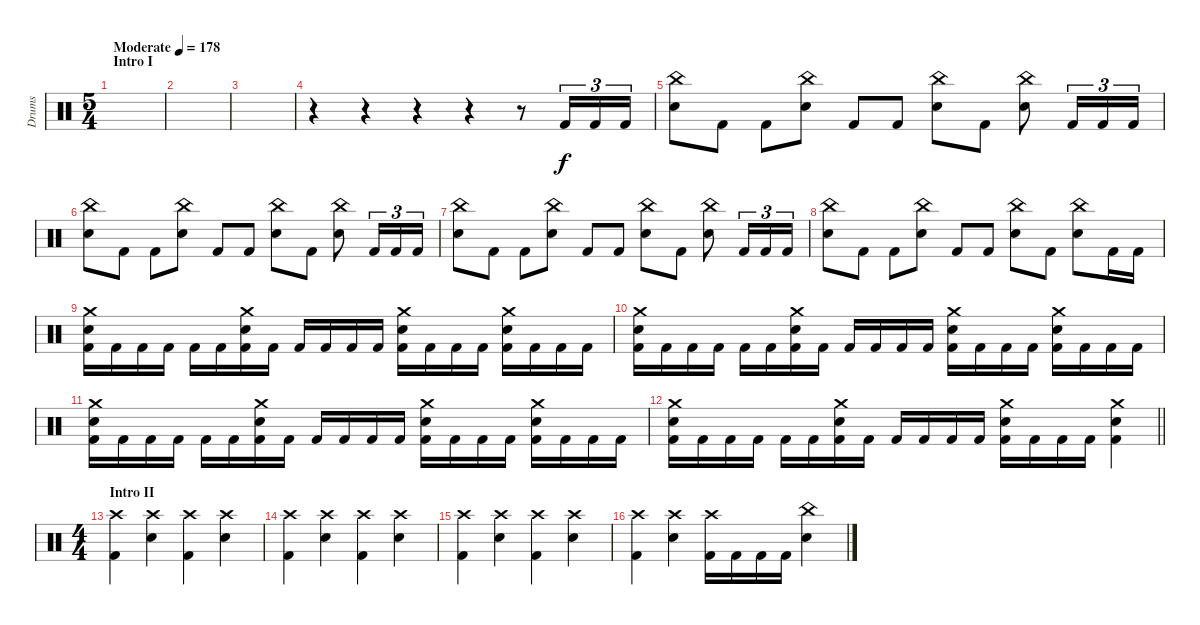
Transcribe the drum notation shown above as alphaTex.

\track ("Drums" "Drums") {instrument percussion}
\staff {score}
\articulation defaults
\ts (5 4)
\section ("" "Intro I")
\tempo (178 "Moderate")
\clef neutral
\ks c
|
|
|
r.4 r.4 r.4 r.4 r.8 "Kick (hit) 2".16{tu (3 2)} "Kick (hit) 2".16{tu (3 2)} "Kick (hit) 2".16{tu (3 2)} |
("China (hit)" "Electric Snare (hit)").8 "Kick (hit) 2".8 "Kick (hit) 2".8 ("China (hit)" "Electric Snare (hit)").8 "Kick (hit) 2".8 "Kick (hit) 2".8 ("China (hit)" "Electric Snare (hit)").8 "Kick (hit) 2".8 ("China (hit)" "Electric Snare (hit)").8 "Kick (hit) 2".16{tu (3 2)} "Kick (hit) 2".16{tu (3 2)} "Kick (hit) 2".16{tu (3 2)} |
("China (hit)" "Electric Snare (hit)").8 "Kick (hit) 2".8 "Kick (hit) 2".8 ("China (hit)" "Electric Snare (hit)").8 "Kick (hit) 2".8 "Kick (hit) 2".8 ("China (hit)" "Electric Snare (hit)").8 "Kick (hit) 2".8 ("China (hit)" "Electric Snare (hit)").8 "Kick (hit) 2".16{tu (3 2)} "Kick (hit) 2".16{tu (3 2)} "Kick (hit) 2".16{tu (3 2)} |
("China (hit)" "Electric Snare (hit)").8 "Kick (hit) 2".8 "Kick (hit) 2".8 ("China (hit)" "Electric Snare (hit)").8 "Kick (hit) 2".8 "Kick (hit) 2".8 ("China (hit)" "Electric Snare (hit)").8 "Kick (hit) 2".8 ("China (hit)" "Electric Snare (hit)").8 "Kick (hit) 2".16{tu (3 2)} "Kick (hit) 2".16{tu (3 2)} "Kick (hit) 2".16{tu (3 2)} |
("China (hit)" "Electric Snare (hit)").8 "Kick (hit) 2".8 "Kick (hit) 2".8 ("China (hit)" "Electric Snare (hit)").8 "Kick (hit) 2".8 "Kick (hit) 2".8 ("China (hit)" "Electric Snare (hit)").8 "Kick (hit) 2".8 ("China (hit)" "Electric Snare (hit)").8 "Kick (hit) 2".16 "Kick (hit) 2".16 |
("Crash medium (hit)" "Electric Snare (hit)" "Kick (hit) 2").16 "Kick (hit) 2".16 "Kick (hit) 2".16 "Kick (hit) 2".16 "Kick (hit) 2".16 "Kick (hit) 2".16 ("Crash medium (hit)" "Electric Snare (hit)" "Kick (hit) 2").16 "Kick (hit) 2".16 "Kick (hit) 2".16 "Kick (hit) 2".16 "Kick (hit) 2".16 "Kick (hit) 2".16 ("Crash medium (hit)" "Electric Snare (hit)" "Kick (hit) 2").16 "Kick (hit) 2".16 "Kick (hit) 2".16 "Kick (hit) 2".16 ("Crash medium (hit)" "Electric Snare (hit)" "Kick (hit) 2").16 "Kick (hit) 2".16 "Kick (hit) 2".16 "Kick (hit) 2".16 |
("Crash medium (hit)" "Electric Snare (hit)" "Kick (hit) 2").16 "Kick (hit) 2".16 "Kick (hit) 2".16 "Kick (hit) 2".16 "Kick (hit) 2".16 "Kick (hit) 2".16 ("Crash medium (hit)" "Electric Snare (hit)" "Kick (hit) 2").16 "Kick (hit) 2".16 "Kick (hit) 2".16 "Kick (hit) 2".16 "Kick (hit) 2".16 "Kick (hit) 2".16 ("Crash medium (hit)" "Electric Snare (hit)" "Kick (hit) 2").16 "Kick (hit) 2".16 "Kick (hit) 2".16 "Kick (hit) 2".16 ("Crash medium (hit)" "Electric Snare (hit)" "Kick (hit) 2").16 "Kick (hit) 2".16 "Kick (hit) 2".16 "Kick (hit) 2".16 |
("Crash medium (hit)" "Electric Snare (hit)" "Kick (hit) 2").16 "Kick (hit) 2".16 "Kick (hit) 2".16 "Kick (hit) 2".16 "Kick (hit) 2".16 "Kick (hit) 2".16 ("Crash medium (hit)" "Electric Snare (hit)" "Kick (hit) 2").16 "Kick (hit) 2".16 "Kick (hit) 2".16 "Kick (hit) 2".16 "Kick (hit) 2".16 "Kick (hit) 2".16 ("Crash medium (hit)" "Electric Snare (hit)" "Kick (hit) 2").16 "Kick (hit) 2".16 "Kick (hit) 2".16 "Kick (hit) 2".16 ("Crash medium (hit)" "Electric Snare (hit)" "Kick (hit) 2").16 "Kick (hit) 2".16 "Kick (hit) 2".16 "Kick (hit) 2".16 |
\barLineRight lightlight
("Crash medium (hit)" "Electric Snare (hit)" "Kick (hit) 2").16 "Kick (hit) 2".16 "Kick (hit) 2".16 "Kick (hit) 2".16 "Kick (hit) 2".16 "Kick (hit) 2".16 ("Crash medium (hit)" "Electric Snare (hit)" "Kick (hit) 2").16 "Kick (hit) 2".16 "Kick (hit) 2".16 "Kick (hit) 2".16 "Kick (hit) 2".16 "Kick (hit) 2".16 ("Crash medium (hit)" "Electric Snare (hit)" "Kick (hit) 2").16 "Kick (hit) 2".16 "Kick (hit) 2".16 "Kick (hit) 2".16 ("Crash medium (hit)" "Electric Snare (hit)" "Kick (hit) 2").4 |
\ts (4 4)
\section ("" "Intro II")
("Crash high (hit)" "Kick (hit) 2").4 ("Crash high (hit)" "Electric Snare (hit)").4 ("Crash high (hit)" "Kick (hit) 2").4 ("Crash high (hit)" "Electric Snare (hit)").4 |
("Crash high (hit)" "Kick (hit) 2").4 ("Crash high (hit)" "Electric Snare (hit)").4 ("Crash high (hit)" "Kick (hit) 2").4 ("Crash high (hit)" "Electric Snare (hit)").4 |
("Crash high (hit)" "Kick (hit) 2").4 ("Crash high (hit)" "Electric Snare (hit)").4 ("Crash high (hit)" "Kick (hit) 2").4 ("Crash high (hit)" "Electric Snare (hit)").4 |
("Crash high (hit)" "Kick (hit) 2").4 ("Crash high (hit)" "Electric Snare (hit)").4 ("Crash high (hit)" "Kick (hit) 2").16 "Kick (hit) 2".16 "Kick (hit) 2".16 "Kick (hit) 2".16 ("China (hit)" "Electric Snare (hit)").4
